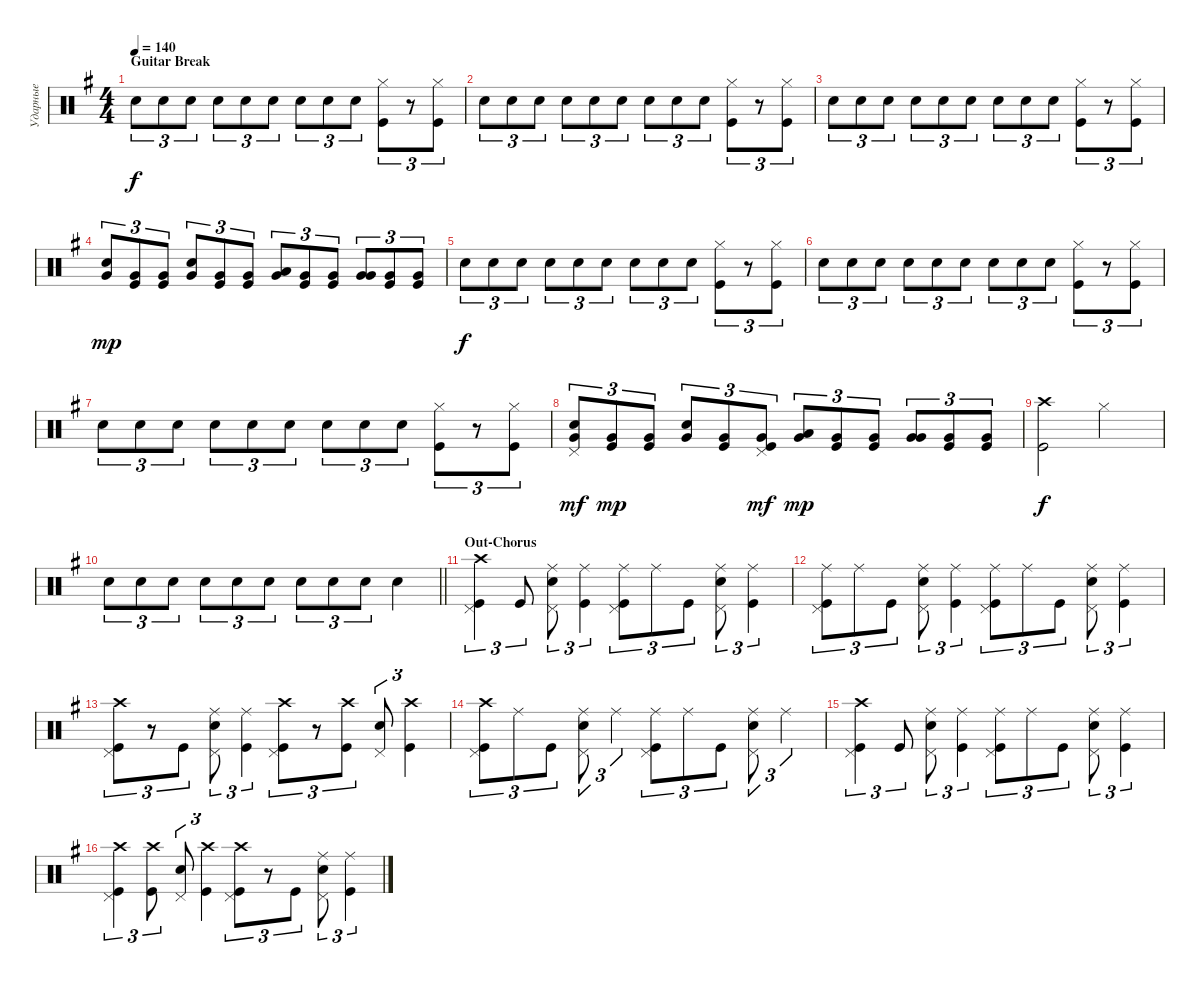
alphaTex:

\track ("Ударные" "Ударные") {instrument percussion}
\staff {score}
\articulation defaults
\ts (4 4)
\section ("" "Guitar Break")
\tempo 140
\clef neutral
\ks eminor "Snare (hit) 2".8{tu (3 2) dy f} "Snare (hit) 2".8{tu (3 2)} "Snare (hit) 2".8{tu (3 2)} "Snare (hit) 2".8{tu (3 2)} "Snare (hit) 2".8{tu (3 2)} "Snare (hit) 2".8{tu (3 2)} "Snare (hit) 2".8{tu (3 2)} "Snare (hit) 2".8{tu (3 2)} "Snare (hit) 2".8{tu (3 2)}
("Kick (hit)" "Hi-Hat (closed)").8{tu (3 2)} r.8{tu (3 2)} ("Hi-Hat (closed)" "Kick (hit)").8{tu (3 2)} |
"Snare (hit) 2".8{tu (3 2)} "Snare (hit) 2".8{tu (3 2)} "Snare (hit) 2".8{tu (3 2)} "Snare (hit) 2".8{tu (3 2)} "Snare (hit) 2".8{tu (3 2)} "Snare (hit) 2".8{tu (3 2)} "Snare (hit) 2".8{tu (3 2)} "Snare (hit) 2".8{tu (3 2)} "Snare (hit) 2".8{tu (3 2)} ("Kick (hit)" "Hi-Hat (closed)").8{tu (3 2)} r.8{tu (3 2)} ("Hi-Hat (closed)" "Kick (hit)").8{tu (3 2)} |
"Snare (hit) 2".8{tu (3 2)} "Snare (hit) 2".8{tu (3 2)} "Snare (hit) 2".8{tu (3 2)} "Snare (hit) 2".8{tu (3 2)} "Snare (hit) 2".8{tu (3 2)} "Snare (hit) 2".8{tu (3 2)} "Snare (hit) 2".8{tu (3 2)} "Snare (hit) 2".8{tu (3 2)} "Snare (hit) 2".8{tu (3 2)} ("Kick (hit)" "Hi-Hat (closed)").8{tu (3 2)} r.8{tu (3 2)} ("Hi-Hat (closed)" "Kick (hit)").8{tu (3 2)} |
("Snare (hit) 2" "Very Low Tom (hit)").8{tu (3 2) bd 240 dy mp} ("Kick (hit)" "Very Low Tom (hit)").8{tu (3 2)} ("Kick (hit)" "Very Low Tom (hit)").8{tu (3 2)} ("Snare (hit) 2" "Very Low Tom (hit)").8{tu (3 2) bd 240} ("Kick (hit)" "Very Low Tom (hit)").8{tu (3 2)} ("Kick (hit)" "Very Low Tom (hit)").8{tu (3 2)} ("Low Tom (hit)" "Very Low Tom (hit)").8{tu (3 2) bd 240} ("Kick (hit)" "Very Low Tom (hit)").8{tu (3 2)} ("Kick (hit)" "Very Low Tom (hit)").8{tu (3 2)} ("Very Low Tom (hit)" "Very Low Tom (hit)").8{tu (3 2) bd 240} ("Kick (hit)" "Very Low Tom (hit)").8{tu (3 2)} ("Kick (hit)" "Very Low Tom (hit)").8{tu (3 2)} |
"Snare (hit) 2".8{tu (3 2) dy f} "Snare (hit) 2".8{tu (3 2)} "Snare (hit) 2".8{tu (3 2)} "Snare (hit) 2".8{tu (3 2)} "Snare (hit) 2".8{tu (3 2)} "Snare (hit) 2".8{tu (3 2)} "Snare (hit) 2".8{tu (3 2)} "Snare (hit) 2".8{tu (3 2)} "Snare (hit) 2".8{tu (3 2)} ("Kick (hit)" "Hi-Hat (closed)").8{tu (3 2)} r.8{tu (3 2)} ("Hi-Hat (closed)" "Kick (hit)").8{tu (3 2)} |
"Snare (hit) 2".8{tu (3 2)} "Snare (hit) 2".8{tu (3 2)} "Snare (hit) 2".8{tu (3 2)} "Snare (hit) 2".8{tu (3 2)} "Snare (hit) 2".8{tu (3 2)} "Snare (hit) 2".8{tu (3 2)} "Snare (hit) 2".8{tu (3 2)} "Snare (hit) 2".8{tu (3 2)} "Snare (hit) 2".8{tu (3 2)} ("Kick (hit)" "Hi-Hat (closed)").8{tu (3 2)} r.8{tu (3 2)} ("Hi-Hat (closed)" "Kick (hit)").8{tu (3 2)} |
"Snare (hit) 2".8{tu (3 2)} "Snare (hit) 2".8{tu (3 2)} "Snare (hit) 2".8{tu (3 2)} "Snare (hit) 2".8{tu (3 2)} "Snare (hit) 2".8{tu (3 2)} "Snare (hit) 2".8{tu (3 2)} "Snare (hit) 2".8{tu (3 2)} "Snare (hit) 2".8{tu (3 2)} "Snare (hit) 2".8{tu (3 2)} ("Kick (hit)" "Hi-Hat (closed)").8{tu (3 2)} r.8{tu (3 2)} ("Hi-Hat (closed)" "Kick (hit)").8{tu (3 2)} |
("Snare (hit) 2" "Very Low Tom (hit)" "Pedal Hi-Hat (hit)").8{tu (3 2) bd 240 dy mf} ("Kick (hit)" "Very Low Tom (hit)").8{tu (3 2) dy mp} ("Kick (hit)" "Very Low Tom (hit)").8{tu (3 2)} ("Snare (hit) 2" "Very Low Tom (hit)").8{tu (3 2) bd 240} ("Kick (hit)" "Very Low Tom (hit)").8{tu (3 2)} ("Kick (hit)" "Very Low Tom (hit)" "Pedal Hi-Hat (hit)").8{tu (3 2) dy mf} ("Low Tom (hit)" "Very Low Tom (hit)").8{tu (3 2) bd 240 dy mp} ("Kick (hit)" "Very Low Tom (hit)").8{tu (3 2)} ("Kick (hit)" "Very Low Tom (hit)").8{tu (3 2)} ("Very Low Tom (hit)" "Very Low Tom (hit)").8{tu (3 2) bd 240} ("Kick (hit)" "Very Low Tom (hit)").8{tu (3 2)} ("Kick (hit)" "Very Low Tom (hit)").8{tu (3 2)} |
("Kick (hit)" "Crash high (hit)").2{dy f} "Hi-Hat (closed)".2 |
\barLineRight lightlight "Snare (hit) 2".8{tu (3 2)} "Snare (hit) 2".8{tu (3 2)} "Snare (hit) 2".8{tu (3 2)} "Snare (hit) 2".8{tu (3 2)} "Snare (hit) 2".8{tu (3 2)} "Snare (hit) 2".8{tu (3 2)} "Snare (hit) 2".8{tu (3 2)} "Snare (hit) 2".8{tu (3 2)} "Snare (hit) 2".8{tu (3 2)} "Snare (hit) 2".4
|
\section ("" "Out-Chorus")
("Kick (hit)" "Crash high (hit)" "Pedal Hi-Hat (hit)").4{tu (3 2)} "Kick (hit)".8{tu (3 2)} ("Snare (hit) 2" "Ride (middle)" "Pedal Hi-Hat (hit)").8{tu (3 2)} ("Kick (hit)" "Ride (middle)").4{tu (3 2)} ("Kick (hit)" "Ride (middle)" "Pedal Hi-Hat (hit)").8{tu (3 2)} "Ride (middle)".8{tu (3 2)} "Kick (hit)".8{tu (3 2)} ("Snare (hit) 2" "Ride (middle)" "Pedal Hi-Hat (hit)").8{tu (3 2)} ("Kick (hit)" "Ride (middle)").4{tu (3 2)} |
("Kick (hit)" "Ride (middle)" "Pedal Hi-Hat (hit)").8{tu (3 2)} "Ride (middle)".8{tu (3 2)} "Kick (hit)".8{tu (3 2)} ("Snare (hit) 2" "Ride (middle)" "Pedal Hi-Hat (hit)").8{tu (3 2)} ("Kick (hit)" "Ride (middle)").4{tu (3 2)} ("Kick (hit)" "Ride (middle)" "Pedal Hi-Hat (hit)").8{tu (3 2)} "Ride (middle)".8{tu (3 2)} "Kick (hit)".8{tu (3 2)} ("Snare (hit) 2" "Ride (middle)" "Pedal Hi-Hat (hit)").8{tu (3 2)} ("Kick (hit)" "Ride (middle)").4{tu (3 2)} |
("Kick (hit)" "Crash high (hit)" "Pedal Hi-Hat (hit)").8{tu (3 2)} r.8{tu (3 2)} "Kick (hit)".8{tu (3 2)} ("Snare (hit) 2" "Ride (middle)" "Pedal Hi-Hat (hit)").8{tu (3 2)} ("Kick (hit)" "Ride (middle)").4{tu (3 2)} ("Kick (hit)" "Pedal Hi-Hat (hit)" "Crash high (hit)").8{tu (3 2)} r.8{tu (3 2)} ("Kick (hit)" "Crash high (hit)").8{tu (3 2)} ("Snare (hit) 2" "Pedal Hi-Hat (hit)").8{tu (3 2)} ("Kick (hit)" "Crash high (hit)").4{tu (3 2)} |
("Kick (hit)" "Crash high (hit)" "Pedal Hi-Hat (hit)").8{tu (3 2)} "Ride (middle)".8{tu (3 2)} "Kick (hit)".8{tu (3 2)} ("Snare (hit) 2" "Ride (middle)" "Pedal Hi-Hat (hit)").8{tu (3 2)} "Ride (middle)".4{tu (3 2)} ("Kick (hit)" "Ride (middle)" "Pedal Hi-Hat (hit)").8{tu (3 2)} "Ride (middle)".8{tu (3 2)} "Kick (hit)".8{tu (3 2)} ("Snare (hit) 2" "Ride (middle)" "Pedal Hi-Hat (hit)").8{tu (3 2)} "Ride (middle)".4{tu (3 2)} |
("Kick (hit)" "Crash high (hit)" "Pedal Hi-Hat (hit)").4{tu (3 2)} "Kick (hit)".8{tu (3 2)} ("Snare (hit) 2" "Ride (middle)" "Pedal Hi-Hat (hit)").8{tu (3 2)} ("Kick (hit)" "Ride (middle)").4{tu (3 2)} ("Kick (hit)" "Ride (middle)" "Pedal Hi-Hat (hit)").8{tu (3 2)} "Ride (middle)".8{tu (3 2)} "Kick (hit)".8{tu (3 2)} ("Snare (hit) 2" "Ride (middle)" "Pedal Hi-Hat (hit)").8{tu (3 2)} ("Kick (hit)" "Ride (middle)").4{tu (3 2)} |
("Kick (hit)" "Crash high (hit)" "Pedal Hi-Hat (hit)").4{tu (3 2)} ("Kick (hit)" "Crash high (hit)").8{tu (3 2)} ("Snare (hit) 2" "Pedal Hi-Hat (hit)").8{tu (3 2)} ("Kick (hit)" "Crash high (hit)").4{tu (3 2)} ("Kick (hit)" "Crash high (hit)" "Pedal Hi-Hat (hit)").8{tu (3 2)} r.8{tu (3 2)} "Kick (hit)".8{tu (3 2)} ("Snare (hit) 2" "Ride (middle)" "Pedal Hi-Hat (hit)").8{tu (3 2)} ("Ride (middle)" "Kick (hit)").4{tu (3 2)}
